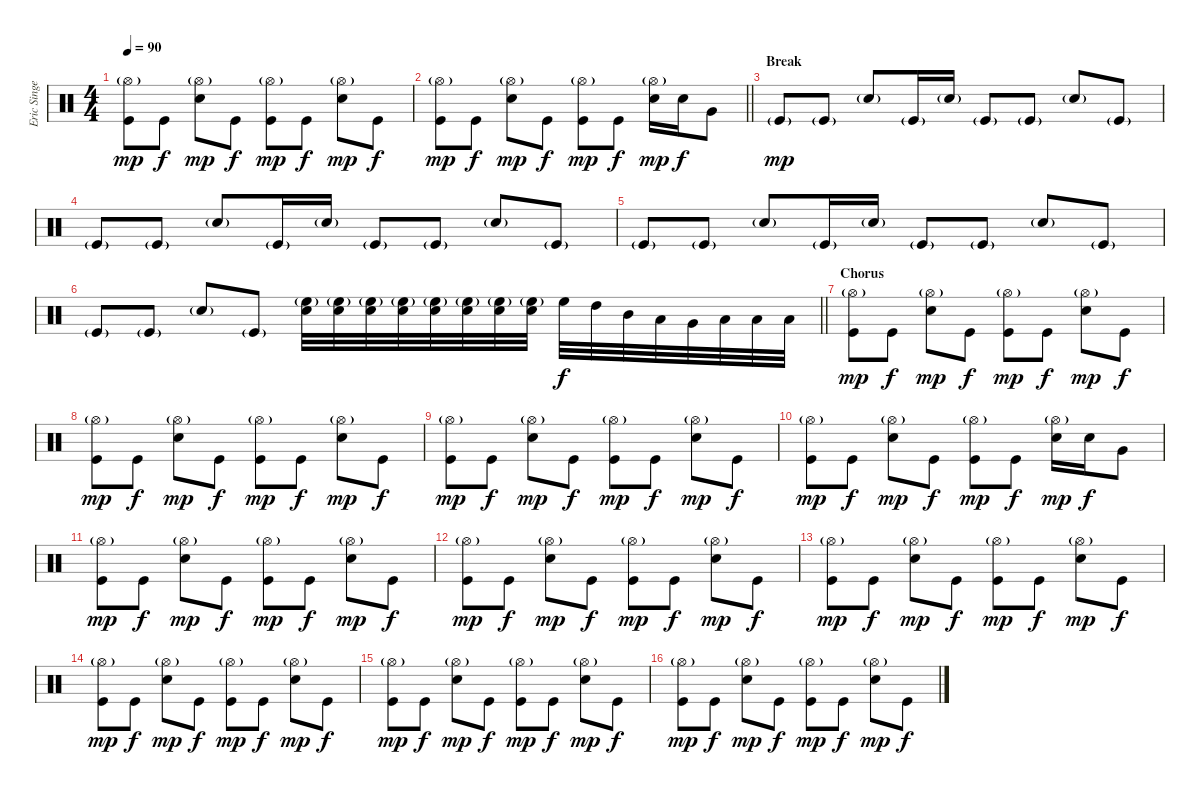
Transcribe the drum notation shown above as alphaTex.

\track ("Eric Singer (Drums)" "Eric Singe") {instrument percussion}
\staff {score}
\articulation defaults
\ts (4 4)
\tempo 90
\clef neutral
\ks c
("Hi-Hat (open)"{g} "Kick (hit)").8{dy mp} "Kick (hit)".8{dy f} ("Hi-Hat (open)"{g} "Snare (hit) 2").8{dy mp} "Kick (hit)".8{dy f} ("Hi-Hat (open)"{g} "Kick (hit)").8{dy mp} "Kick (hit)".8{dy f} ("Hi-Hat (open)"{g} "Snare (hit) 2").8{dy mp} "Kick (hit)".8{dy f} |
\barLineRight lightlight
("Hi-Hat (open)"{g} "Kick (hit)").8{dy mp} "Kick (hit)".8{dy f} ("Hi-Hat (open)"{g} "Snare (hit) 2").8{dy mp} "Kick (hit)".8{dy f} ("Hi-Hat (open)"{g} "Kick (hit)").8{dy mp} "Kick (hit)".8{dy f} ("Hi-Hat (open)"{g} "Snare (hit) 2").16{dy mp} "Snare (hit) 2".16{dy f} "Very Low Tom (hit)".8 |
\section ("" "Break")
"Kick (hit)"{g}.8{dy mp} "Kick (hit)"{g}.8 "Snare (hit) 2"{g}.8 "Kick (hit)"{g}.16 "Snare (hit) 2"{g}.16 "Kick (hit)"{g}.8 "Kick (hit)"{g}.8 "Snare (hit) 2"{g}.8 "Kick (hit)"{g}.8 |
"Kick (hit)"{g}.8 "Kick (hit)"{g}.8 "Snare (hit) 2"{g}.8 "Kick (hit)"{g}.16 "Snare (hit) 2"{g}.16 "Kick (hit)"{g}.8 "Kick (hit)"{g}.8 "Snare (hit) 2"{g}.8 "Kick (hit)"{g}.8 |
"Kick (hit)"{g}.8 "Kick (hit)"{g}.8 "Snare (hit) 2"{g}.8 "Kick (hit)"{g}.16 "Snare (hit) 2"{g}.16 "Kick (hit)"{g}.8 "Kick (hit)"{g}.8 "Snare (hit) 2"{g}.8 "Kick (hit)"{g}.8 |
\barLineRight lightlight "Kick (hit)"{g}.8 "Kick (hit)"{g}.8 "Snare (hit) 2"{g}.8 "Kick (hit)"{g}.8
("High Floor Tom (hit)"{g} "Snare (hit) 2").32 ("High Floor Tom (hit)"{g} "Snare (hit) 2").32 ("High Floor Tom (hit)"{g} "Snare (hit) 2").32 ("High Floor Tom (hit)"{g} "Snare (hit) 2").32 ("High Floor Tom (hit)"{g} "Snare (hit) 2").32 ("High Floor Tom (hit)"{g} "Snare (hit) 2").32 ("High Floor Tom (hit)"{g} "Snare (hit) 2").32 ("High Floor Tom (hit)"{g} "Snare (hit) 2").32 "High Floor Tom (hit)".32{dy f} "High Tom (hit)".32 "Mid Tom (hit)".32 "Low Tom (hit)".32 "Very Low Tom (hit)".32 "Low Floor Tom (hit)".32 "Low Floor Tom (hit)".32 "Low Floor Tom (hit)".32 |
\section ("" "Chorus")
("Hi-Hat (open)"{g} "Kick (hit)").8{dy mp} "Kick (hit)".8{dy f} ("Hi-Hat (open)"{g} "Snare (hit) 2").8{dy mp} "Kick (hit)".8{dy f} ("Hi-Hat (open)"{g} "Kick (hit)").8{dy mp} "Kick (hit)".8{dy f} ("Hi-Hat (open)"{g} "Snare (hit) 2").8{dy mp} "Kick (hit)".8{dy f} |
("Hi-Hat (open)"{g} "Kick (hit)").8{dy mp} "Kick (hit)".8{dy f} ("Hi-Hat (open)"{g} "Snare (hit) 2").8{dy mp} "Kick (hit)".8{dy f} ("Hi-Hat (open)"{g} "Kick (hit)").8{dy mp} "Kick (hit)".8{dy f} ("Hi-Hat (open)"{g} "Snare (hit) 2").8{dy mp} "Kick (hit)".8{dy f} |
("Hi-Hat (open)"{g} "Kick (hit)").8{dy mp} "Kick (hit)".8{dy f} ("Hi-Hat (open)"{g} "Snare (hit) 2").8{dy mp} "Kick (hit)".8{dy f} ("Hi-Hat (open)"{g} "Kick (hit)").8{dy mp} "Kick (hit)".8{dy f} ("Hi-Hat (open)"{g} "Snare (hit) 2").8{dy mp} "Kick (hit)".8{dy f} |
("Hi-Hat (open)"{g} "Kick (hit)").8{dy mp} "Kick (hit)".8{dy f} ("Hi-Hat (open)"{g} "Snare (hit) 2").8{dy mp} "Kick (hit)".8{dy f} ("Hi-Hat (open)"{g} "Kick (hit)").8{dy mp} "Kick (hit)".8{dy f} ("Hi-Hat (open)"{g} "Snare (hit) 2").16{dy mp} "Snare (hit) 2".16{dy f} "Very Low Tom (hit)".8 |
("Hi-Hat (open)"{g} "Kick (hit)").8{dy mp} "Kick (hit)".8{dy f} ("Hi-Hat (open)"{g} "Snare (hit) 2").8{dy mp} "Kick (hit)".8{dy f} ("Hi-Hat (open)"{g} "Kick (hit)").8{dy mp} "Kick (hit)".8{dy f} ("Hi-Hat (open)"{g} "Snare (hit) 2").8{dy mp} "Kick (hit)".8{dy f} |
("Hi-Hat (open)"{g} "Kick (hit)").8{dy mp} "Kick (hit)".8{dy f} ("Hi-Hat (open)"{g} "Snare (hit) 2").8{dy mp} "Kick (hit)".8{dy f} ("Hi-Hat (open)"{g} "Kick (hit)").8{dy mp} "Kick (hit)".8{dy f} ("Hi-Hat (open)"{g} "Snare (hit) 2").8{dy mp} "Kick (hit)".8{dy f} |
("Hi-Hat (open)"{g} "Kick (hit)").8{dy mp} "Kick (hit)".8{dy f} ("Hi-Hat (open)"{g} "Snare (hit) 2").8{dy mp} "Kick (hit)".8{dy f} ("Hi-Hat (open)"{g} "Kick (hit)").8{dy mp} "Kick (hit)".8{dy f} ("Hi-Hat (open)"{g} "Snare (hit) 2").8{dy mp} "Kick (hit)".8{dy f} |
("Hi-Hat (open)"{g} "Kick (hit)").8{dy mp} "Kick (hit)".8{dy f} ("Hi-Hat (open)"{g} "Snare (hit) 2").8{dy mp} "Kick (hit)".8{dy f} ("Hi-Hat (open)"{g} "Kick (hit)").8{dy mp} "Kick (hit)".8{dy f} ("Hi-Hat (open)"{g} "Snare (hit) 2").8{dy mp} "Kick (hit)".8{dy f} |
("Hi-Hat (open)"{g} "Kick (hit)").8{dy mp} "Kick (hit)".8{dy f} ("Hi-Hat (open)"{g} "Snare (hit) 2").8{dy mp} "Kick (hit)".8{dy f} ("Hi-Hat (open)"{g} "Kick (hit)").8{dy mp} "Kick (hit)".8{dy f} ("Hi-Hat (open)"{g} "Snare (hit) 2").8{dy mp} "Kick (hit)".8{dy f} |
("Hi-Hat (open)"{g} "Kick (hit)").8{dy mp} "Kick (hit)".8{dy f} ("Hi-Hat (open)"{g} "Snare (hit) 2").8{dy mp} "Kick (hit)".8{dy f} ("Hi-Hat (open)"{g} "Kick (hit)").8{dy mp} "Kick (hit)".8{dy f} ("Hi-Hat (open)"{g} "Snare (hit) 2").8{dy mp} "Kick (hit)".8{dy f}
